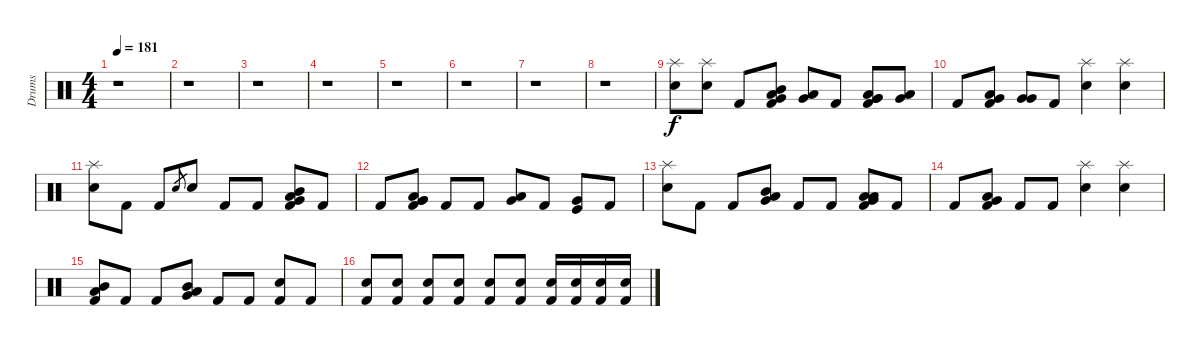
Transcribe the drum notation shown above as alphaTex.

\track ("Drums" "Drums") {instrument percussion}
\staff {score}
\articulation defaults
\ts (4 4)
\tempo 181
\clef neutral
\ks c
r.1{dy f} |
r.1 |
r.1 |
r.1 |
r.1 |
r.1 |
r.1 |
r.1 |
("Splash (hit)" "Electric Snare (hit)").8 ("Splash (hit)" "Electric Snare (hit)").8 "Kick (hit) 2".8 ("Mid Tom (hit)" "Low Tom (hit)" "Very Low Tom (hit)" "Kick (hit) 2").8 ("Low Tom (hit)" "Very Low Tom (hit)").8 "Kick (hit) 2".8 ("Low Tom (hit)" "Very Low Tom (hit)" "Very Low Tom (hit)" "Kick (hit) 2").8 ("Low Tom (hit)" "Very Low Tom (hit)").8 |
"Kick (hit) 2".8 ("Low Tom (hit)" "Very Low Tom (hit)" "Kick (hit) 2").8 ("Very Low Tom (hit)" "Very Low Tom (hit)").8 "Kick (hit) 2".8 ("Splash (hit)" "Electric Snare (hit)").4 ("Splash (hit)" "Electric Snare (hit)").4 |
("Splash (hit)" "Electric Snare (hit)").8 "Kick (hit) 2".8 "Kick (hit) 2".8 "Electric Snare (hit)".8{gr} "Electric Snare (hit)".8 "Kick (hit) 2".8 "Kick (hit) 2".8 ("Mid Tom (hit)" "Low Tom (hit)" "Very Low Tom (hit)" "Kick (hit) 2").8 "Kick (hit) 2".8 |
"Kick (hit) 2".8 ("Low Tom (hit)" "Very Low Tom (hit)" "Very Low Tom (hit)" "Kick (hit) 2").8 "Kick (hit) 2".8 "Kick (hit) 2".8 ("Low Tom (hit)" "Very Low Tom (hit)").8 "Kick (hit) 2".8 ("Kick (hit)" "Very Low Tom (hit)").8 "Kick (hit) 2".8 |
("Splash (hit)" "Electric Snare (hit)").8 "Kick (hit) 2".8 "Kick (hit) 2".8 ("Mid Tom (hit)" "Low Tom (hit)" "Very Low Tom (hit)").8 "Kick (hit) 2".8 "Kick (hit) 2".8 ("Low Tom (hit)" "Low Tom (hit)" "Very Low Tom (hit)" "Kick (hit) 2").8 "Kick (hit) 2".8 |
"Kick (hit) 2".8 ("Low Tom (hit)" "Very Low Tom (hit)" "Kick (hit) 2").8 "Kick (hit) 2".8 "Kick (hit) 2".8 ("Splash (hit)" "Electric Snare (hit)").4 ("Splash (hit)" "Electric Snare (hit)").4 |
("Mid Tom (hit)" "Low Tom (hit)" "Kick (hit) 2").8 "Kick (hit) 2".8 "Kick (hit) 2".8 ("Mid Tom (hit)" "Low Tom (hit)" "Very Low Tom (hit)").8 "Kick (hit) 2".8 "Kick (hit) 2".8 ("Electric Snare (hit)" "Kick (hit) 2").8 "Kick (hit) 2".8 |
("Electric Snare (hit)" "Kick (hit) 2").8{volume 5} ("Electric Snare (hit)" "Kick (hit) 2").8{volume 6} ("Electric Snare (hit)" "Kick (hit) 2").8{volume 8} ("Electric Snare (hit)" "Kick (hit) 2").8{volume 10} ("Electric Snare (hit)" "Kick (hit) 2").8{volume 11} ("Electric Snare (hit)" "Kick (hit) 2").8{volume 12} ("Electric Snare (hit)" "Kick (hit) 2").16{volume 13} ("Electric Snare (hit)" "Kick (hit) 2").16 ("Electric Snare (hit)" "Kick (hit) 2").16 ("Electric Snare (hit)" "Kick (hit) 2").16
